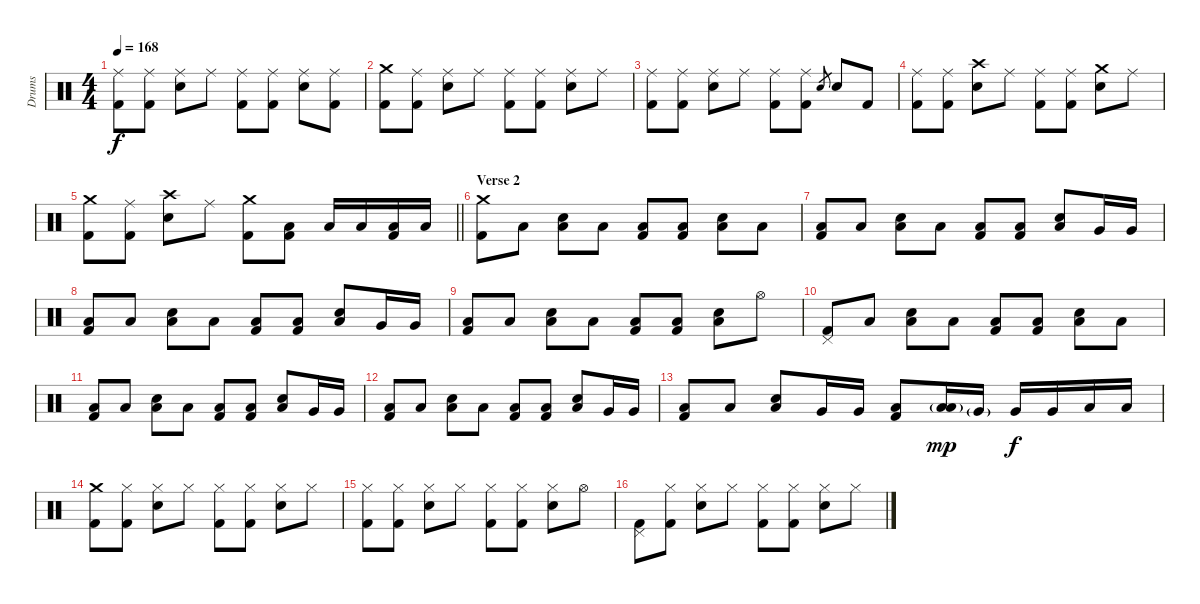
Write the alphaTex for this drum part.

\track ("Drums" "Drums") {instrument percussion}
\staff {score}
\articulation defaults
\ts (4 4)
\tempo 168
\clef neutral
\ks c
("Ride (middle)" "Kick (hit) 2").8{dy f} ("Ride (middle)" "Kick (hit) 2").8 ("Ride (middle)" "Electric Snare (hit)").8 "Ride (middle)".8 ("Ride (middle)" "Kick (hit) 2").8 ("Ride (middle)" "Kick (hit) 2").8 ("Ride (middle)" "Electric Snare (hit)").8 ("Ride (middle)" "Kick (hit) 2").8 |
("Crash medium (hit)" "Kick (hit) 2").8 ("Ride (middle)" "Kick (hit) 2").8 ("Ride (middle)" "Electric Snare (hit)").8 "Ride (middle)".8 ("Ride (middle)" "Kick (hit) 2").8 ("Ride (middle)" "Kick (hit) 2").8 ("Ride (middle)" "Electric Snare (hit)").8 "Ride (middle)".8 |
("Ride (middle)" "Kick (hit) 2").8 ("Ride (middle)" "Kick (hit) 2").8 ("Ride (middle)" "Electric Snare (hit)").8 "Ride (middle)".8 ("Ride (middle)" "Kick (hit) 2").8 ("Ride (middle)" "Kick (hit) 2").8 "Electric Snare (hit)".8{gr} "Electric Snare (hit)".8 "Kick (hit) 2".8 |
("Ride (middle)" "Kick (hit) 2").8 ("Ride (middle)" "Kick (hit) 2").8 ("Crash high (hit)" "Electric Snare (hit)").8 "Ride (middle)".8 ("Ride (middle)" "Kick (hit) 2").8 ("Ride (middle)" "Kick (hit) 2").8 ("Crash medium (hit)" "Electric Snare (hit)").8 "Ride (middle)".8 |
\barLineRight lightlight
("Crash medium (hit)" "Kick (hit) 2").8 ("Ride (middle)" "Kick (hit) 2").8 ("Crash high (hit)" "Electric Snare (hit)").8 "Ride (middle)".8 ("Crash medium (hit)" "Kick (hit) 2").8 ("Low Floor Tom (hit)" "Kick (hit) 2").8 "Low Floor Tom (hit)".16 "Low Floor Tom (hit)".16 ("Low Floor Tom (hit)" "Kick (hit) 2").16 "Low Floor Tom (hit)".16 |
\section ("" "Verse 2")
("Crash medium (hit)" "Kick (hit) 2").8 "Low Floor Tom (hit)".8 ("Low Floor Tom (hit)" "Electric Snare (hit)").8 "Low Floor Tom (hit)".8 ("Low Floor Tom (hit)" "Kick (hit) 2").8 ("Low Floor Tom (hit)" "Kick (hit) 2").8 ("Low Floor Tom (hit)" "Electric Snare (hit)").8 "Low Floor Tom (hit)".8 |
("Low Floor Tom (hit)" "Kick (hit) 2").8 "Low Floor Tom (hit)".8 ("Low Floor Tom (hit)" "Electric Snare (hit)").8 "Low Floor Tom (hit)".8 ("Low Floor Tom (hit)" "Kick (hit) 2").8 ("Low Floor Tom (hit)" "Kick (hit) 2").8 ("Low Floor Tom (hit)" "Electric Snare (hit)").8 "Very Low Tom (hit)".16 "Very Low Tom (hit)".16 |
("Low Floor Tom (hit)" "Kick (hit) 2").8 "Low Floor Tom (hit)".8 ("Low Floor Tom (hit)" "Electric Snare (hit)").8 "Low Floor Tom (hit)".8 ("Low Floor Tom (hit)" "Kick (hit) 2").8 ("Low Floor Tom (hit)" "Kick (hit) 2").8 ("Low Floor Tom (hit)" "Electric Snare (hit)").8 "Very Low Tom (hit)".16 "Very Low Tom (hit)".16 |
("Low Floor Tom (hit)" "Kick (hit) 2").8 "Low Floor Tom (hit)".8 ("Low Floor Tom (hit)" "Electric Snare (hit)").8 "Low Floor Tom (hit)".8 ("Low Floor Tom (hit)" "Kick (hit) 2").8 ("Low Floor Tom (hit)" "Kick (hit) 2").8 ("Low Floor Tom (hit)" "Electric Snare (hit)").8 "Hi-Hat (open)".8 |
("Pedal Hi-Hat (hit)" "Kick (hit) 2").8 "Low Floor Tom (hit)".8 ("Low Floor Tom (hit)" "Electric Snare (hit)").8 "Low Floor Tom (hit)".8 ("Low Floor Tom (hit)" "Kick (hit) 2").8 ("Low Floor Tom (hit)" "Kick (hit) 2").8 ("Low Floor Tom (hit)" "Electric Snare (hit)").8 "Low Floor Tom (hit)".8 |
("Low Floor Tom (hit)" "Kick (hit) 2").8 "Low Floor Tom (hit)".8 ("Low Floor Tom (hit)" "Electric Snare (hit)").8 "Low Floor Tom (hit)".8 ("Low Floor Tom (hit)" "Kick (hit) 2").8 ("Low Floor Tom (hit)" "Kick (hit) 2").8 ("Low Floor Tom (hit)" "Electric Snare (hit)").8 "Very Low Tom (hit)".16 "Very Low Tom (hit)".16 |
("Low Floor Tom (hit)" "Kick (hit) 2").8 "Low Floor Tom (hit)".8 ("Low Floor Tom (hit)" "Electric Snare (hit)").8 "Low Floor Tom (hit)".8 ("Low Floor Tom (hit)" "Kick (hit) 2").8 ("Low Floor Tom (hit)" "Kick (hit) 2").8 ("Low Floor Tom (hit)" "Electric Snare (hit)").8 "Very Low Tom (hit)".16 "Very Low Tom (hit)".16 |
("Low Floor Tom (hit)" "Kick (hit) 2").8 "Low Floor Tom (hit)".8 ("Low Floor Tom (hit)" "Electric Snare (hit)").8 "Very Low Tom (hit)".16 "Very Low Tom (hit)".16 ("Low Floor Tom (hit)" "Kick (hit) 2").8 ("Low Tom (hit)"{g} "Low Floor Tom (hit)").16{dy mp} "Very Low Tom (hit)"{g}.16 "Very Low Tom (hit)".16{dy f} "Very Low Tom (hit)".16 "Low Floor Tom (hit)".16 "Low Floor Tom (hit)".16 |
("Crash medium (hit)" "Kick (hit) 2").8 ("Hi-Hat (closed)" "Kick (hit) 2").8 ("Hi-Hat (closed)" "Electric Snare (hit)").8 "Hi-Hat (closed)".8 ("Hi-Hat (closed)" "Kick (hit) 2").8 ("Hi-Hat (closed)" "Kick (hit) 2").8 ("Hi-Hat (closed)" "Electric Snare (hit)").8 "Hi-Hat (closed)".8 |
("Hi-Hat (closed)" "Kick (hit) 2").8 ("Hi-Hat (closed)" "Kick (hit) 2").8 ("Hi-Hat (closed)" "Electric Snare (hit)").8 "Hi-Hat (closed)".8 ("Hi-Hat (closed)" "Kick (hit) 2").8 ("Hi-Hat (closed)" "Kick (hit) 2").8 ("Hi-Hat (closed)" "Electric Snare (hit)").8 "Hi-Hat (open)".8 |
("Pedal Hi-Hat (hit)" "Kick (hit) 2").8 ("Hi-Hat (closed)" "Kick (hit) 2").8 ("Hi-Hat (closed)" "Electric Snare (hit)").8 "Hi-Hat (closed)".8 ("Hi-Hat (closed)" "Kick (hit) 2").8 ("Hi-Hat (closed)" "Kick (hit) 2").8 ("Hi-Hat (closed)" "Electric Snare (hit)").8 "Hi-Hat (closed)".8
